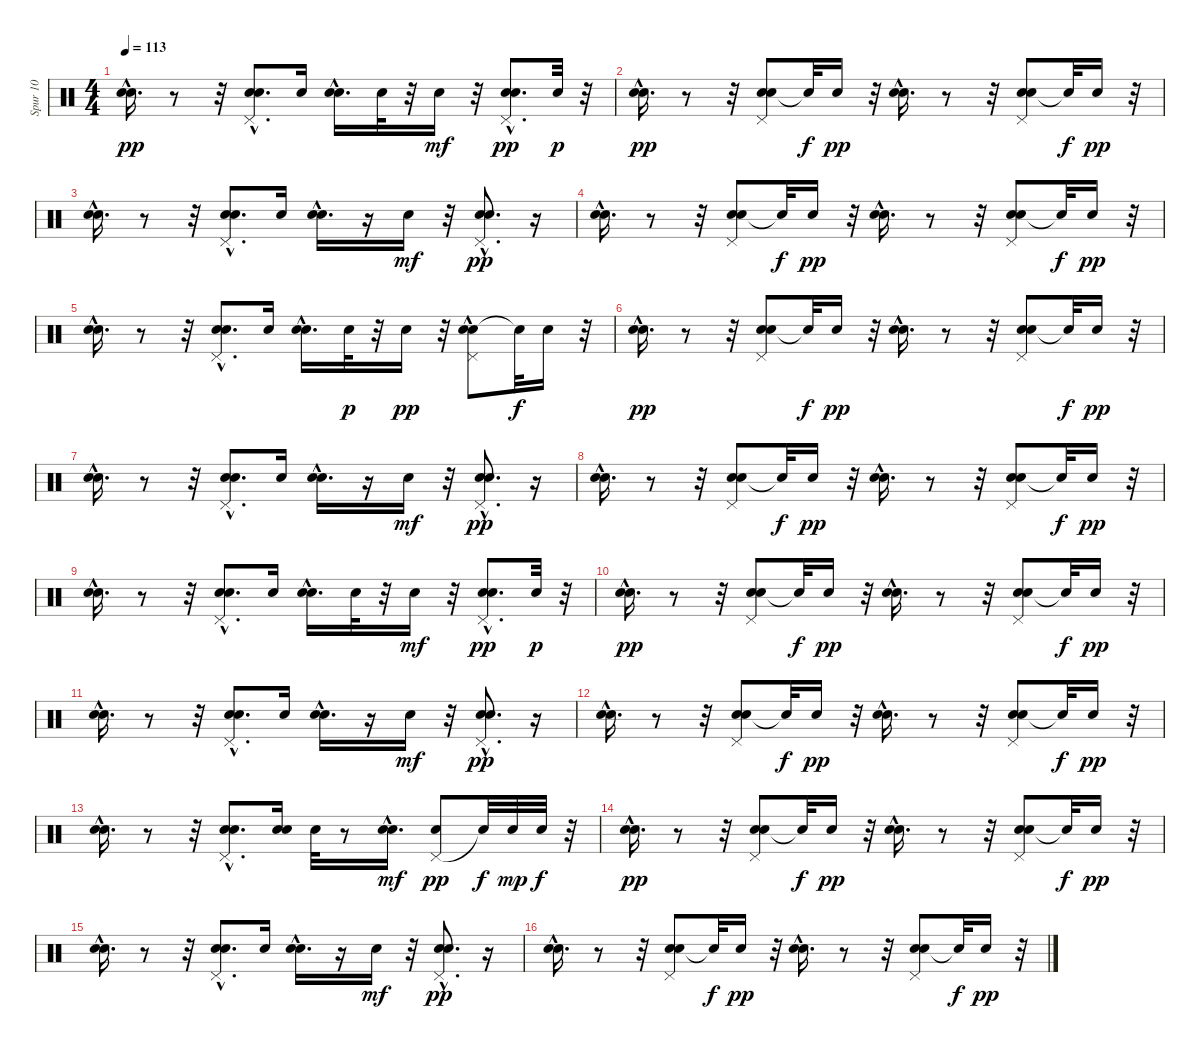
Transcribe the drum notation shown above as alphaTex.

\track ("Spur 10" "Spur 10") {instrument percussion}
\staff {score}
\articulation defaults
\ts (4 4)
\tempo 113
\clef neutral
\ks c
("Snare (hit) 2"{hac} "Electric Snare (hit)").16{d dy pp} r.8 r.32 ("Snare (hit) 2" "Pedal Hi-Hat (hit)"{hac} "Electric Snare (hit)").8{d} "Snare (hit) 2".16 ("Snare (hit) 2"{hac} "Electric Snare (hit)").16{d} "Snare (hit) 2".32 r.32 "Snare (hit) 2".16{dy mf} r.32 ("Snare (hit) 2"{hac} "Pedal Hi-Hat (hit)"{hac} "Electric Snare (hit)").8{d dy pp} "Snare (hit) 2".32{dy p} r.32 |
("Snare (hit) 2"{hac} "Electric Snare (hit)").16{d dy pp} r.8 r.32 ("Snare (hit) 2" "Pedal Hi-Hat (hit)" "Electric Snare (hit)").8 "Snare (hit)"{t}.32{dy f} "Snare (hit) 2".16{dy pp} r.32 ("Snare (hit) 2"{hac} "Electric Snare (hit)").16{d} r.8 r.32 ("Snare (hit) 2" "Pedal Hi-Hat (hit)" "Electric Snare (hit)").8 "Snare (hit)"{t}.32{dy f} "Snare (hit) 2".16{dy pp} r.32 |
("Snare (hit) 2"{hac} "Electric Snare (hit)").16{d} r.8 r.32 ("Snare (hit) 2" "Pedal Hi-Hat (hit)"{hac} "Electric Snare (hit)").8{d} "Snare (hit) 2".16 ("Snare (hit) 2"{hac} "Electric Snare (hit)").16{d} r.16 "Snare (hit) 2".16{dy mf} r.32 ("Snare (hit) 2"{hac} "Pedal Hi-Hat (hit)"{hac} "Electric Snare (hit)").8{d dy pp} r.16 |
("Snare (hit) 2"{hac} "Electric Snare (hit)").16{d} r.8 r.32 ("Snare (hit) 2" "Pedal Hi-Hat (hit)" "Electric Snare (hit)").8 "Snare (hit)"{t}.32{dy f} "Snare (hit) 2".16{dy pp} r.32 ("Snare (hit) 2"{hac} "Electric Snare (hit)").16{d} r.8 r.32 ("Snare (hit) 2" "Pedal Hi-Hat (hit)" "Electric Snare (hit)").8 "Snare (hit)"{t}.32{dy f} "Snare (hit) 2".16{dy pp} r.32 |
("Snare (hit) 2"{hac} "Electric Snare (hit)").16{d} r.8 r.32 ("Snare (hit) 2" "Pedal Hi-Hat (hit)"{hac} "Electric Snare (hit)").8{d} "Snare (hit) 2".16 ("Snare (hit) 2"{hac} "Electric Snare (hit)").16{d} "Snare (hit) 2".32{dy p} r.32 "Snare (hit) 2".16{dy pp} r.32 ("Hand Clap (hit)"{hac} "Pedal Hi-Hat (hit)" "Electric Snare (hit)").8 "Snare (hit)"{t}.32{dy f} "Hand Clap (hit)".16 r.32 |
("Snare (hit) 2"{hac} "Electric Snare (hit)").16{d dy pp} r.8 r.32 ("Snare (hit) 2" "Pedal Hi-Hat (hit)" "Electric Snare (hit)").8 "Snare (hit)"{t}.32{dy f} "Snare (hit) 2".16{dy pp} r.32 ("Snare (hit) 2"{hac} "Electric Snare (hit)").16{d} r.8 r.32 ("Snare (hit) 2" "Pedal Hi-Hat (hit)" "Electric Snare (hit)").8 "Snare (hit)"{t}.32{dy f} "Snare (hit) 2".16{dy pp} r.32 |
("Snare (hit) 2"{hac} "Electric Snare (hit)").16{d} r.8 r.32 ("Snare (hit) 2" "Pedal Hi-Hat (hit)"{hac} "Electric Snare (hit)").8{d} "Snare (hit) 2".16 ("Snare (hit) 2"{hac} "Electric Snare (hit)").16{d} r.16 "Snare (hit) 2".16{dy mf} r.32 ("Snare (hit) 2"{hac} "Pedal Hi-Hat (hit)"{hac} "Electric Snare (hit)").8{d dy pp} r.16 |
("Snare (hit) 2"{hac} "Electric Snare (hit)").16{d} r.8 r.32 ("Snare (hit) 2" "Pedal Hi-Hat (hit)" "Electric Snare (hit)").8 "Snare (hit)"{t}.32{dy f} "Snare (hit) 2".16{dy pp} r.32 ("Snare (hit) 2"{hac} "Electric Snare (hit)").16{d} r.8 r.32 ("Snare (hit) 2" "Pedal Hi-Hat (hit)" "Electric Snare (hit)").8 "Snare (hit)"{t}.32{dy f} "Snare (hit) 2".16{dy pp} r.32 |
("Snare (hit) 2"{hac} "Electric Snare (hit)").16{d} r.8 r.32 ("Snare (hit) 2" "Pedal Hi-Hat (hit)"{hac} "Electric Snare (hit)").8{d} "Snare (hit) 2".16 ("Snare (hit) 2"{hac} "Electric Snare (hit)").16{d} "Snare (hit) 2".32 r.32 "Snare (hit) 2".16{dy mf} r.32 ("Snare (hit) 2"{hac} "Pedal Hi-Hat (hit)"{hac} "Electric Snare (hit)").8{d dy pp} "Snare (hit) 2".32{dy p} r.32 |
("Snare (hit) 2"{hac} "Electric Snare (hit)").16{d dy pp} r.8 r.32 ("Snare (hit) 2" "Pedal Hi-Hat (hit)" "Electric Snare (hit)").8 "Snare (hit)"{t}.32{dy f} "Snare (hit) 2".16{dy pp} r.32 ("Snare (hit) 2"{hac} "Electric Snare (hit)").16{d} r.8 r.32 ("Snare (hit) 2" "Pedal Hi-Hat (hit)" "Electric Snare (hit)").8 "Snare (hit)"{t}.32{dy f} "Snare (hit) 2".16{dy pp} r.32 |
("Snare (hit) 2"{hac} "Electric Snare (hit)").16{d} r.8 r.32 ("Snare (hit) 2" "Pedal Hi-Hat (hit)"{hac} "Electric Snare (hit)").8{d} "Snare (hit) 2".16 ("Snare (hit) 2"{hac} "Electric Snare (hit)").16{d} r.16 "Snare (hit) 2".16{dy mf} r.32 ("Snare (hit) 2"{hac} "Pedal Hi-Hat (hit)"{hac} "Electric Snare (hit)").8{d dy pp} r.16 |
("Snare (hit) 2"{hac} "Electric Snare (hit)").16{d} r.8 r.32 ("Snare (hit) 2" "Pedal Hi-Hat (hit)" "Electric Snare (hit)").8 "Snare (hit)"{t}.32{dy f} "Snare (hit) 2".16{dy pp} r.32 ("Snare (hit) 2"{hac} "Electric Snare (hit)").16{d} r.8 r.32 ("Snare (hit) 2" "Pedal Hi-Hat (hit)" "Electric Snare (hit)").8 "Snare (hit)"{t}.32{dy f} "Snare (hit) 2".16{dy pp} r.32 |
("Snare (hit) 2"{hac} "Electric Snare (hit)").16{d} r.8 r.32 ("Snare (hit) 2" "Pedal Hi-Hat (hit)"{hac} "Electric Snare (hit)").8{d} ("Hand Clap (hit)" "Snare (hit) 2").16 "Electric Snare (hit)".32 r.8 ("Snare (hit) 2"{hac} "Snare (hit) 2"{hac}).16{d dy mf} ("Pedal Hi-Hat (hit)" "Electric Snare (hit)").8{dy pp} "Snare (hit)"{t}.32{dy f} "Snare (hit) 2".32{dy mp} "Snare (hit) 2".32{dy f} r.32 |
("Snare (hit) 2"{hac} "Electric Snare (hit)").16{d dy pp} r.8 r.32 ("Snare (hit) 2" "Pedal Hi-Hat (hit)" "Electric Snare (hit)").8 "Snare (hit)"{t}.32{dy f} "Snare (hit) 2".16{dy pp} r.32 ("Snare (hit) 2"{hac} "Electric Snare (hit)").16{d} r.8 r.32 ("Snare (hit) 2" "Pedal Hi-Hat (hit)" "Electric Snare (hit)").8 "Snare (hit)"{t}.32{dy f} "Snare (hit) 2".16{dy pp} r.32 |
("Snare (hit) 2"{hac} "Electric Snare (hit)").16{d} r.8 r.32 ("Snare (hit) 2" "Pedal Hi-Hat (hit)"{hac} "Electric Snare (hit)").8{d} "Snare (hit) 2".16 ("Snare (hit) 2"{hac} "Electric Snare (hit)").16{d} r.16 "Snare (hit) 2".16{dy mf} r.32 ("Snare (hit) 2"{hac} "Pedal Hi-Hat (hit)"{hac} "Electric Snare (hit)").8{d dy pp} r.16 |
("Snare (hit) 2"{hac} "Electric Snare (hit)").16{d} r.8 r.32 ("Snare (hit) 2" "Pedal Hi-Hat (hit)" "Electric Snare (hit)").8 "Snare (hit)"{t}.32{dy f} "Snare (hit) 2".16{dy pp} r.32 ("Snare (hit) 2"{hac} "Electric Snare (hit)").16{d} r.8 r.32 ("Snare (hit) 2" "Pedal Hi-Hat (hit)" "Electric Snare (hit)").8 "Snare (hit)"{t}.32{dy f} "Snare (hit) 2".16{dy pp} r.32
